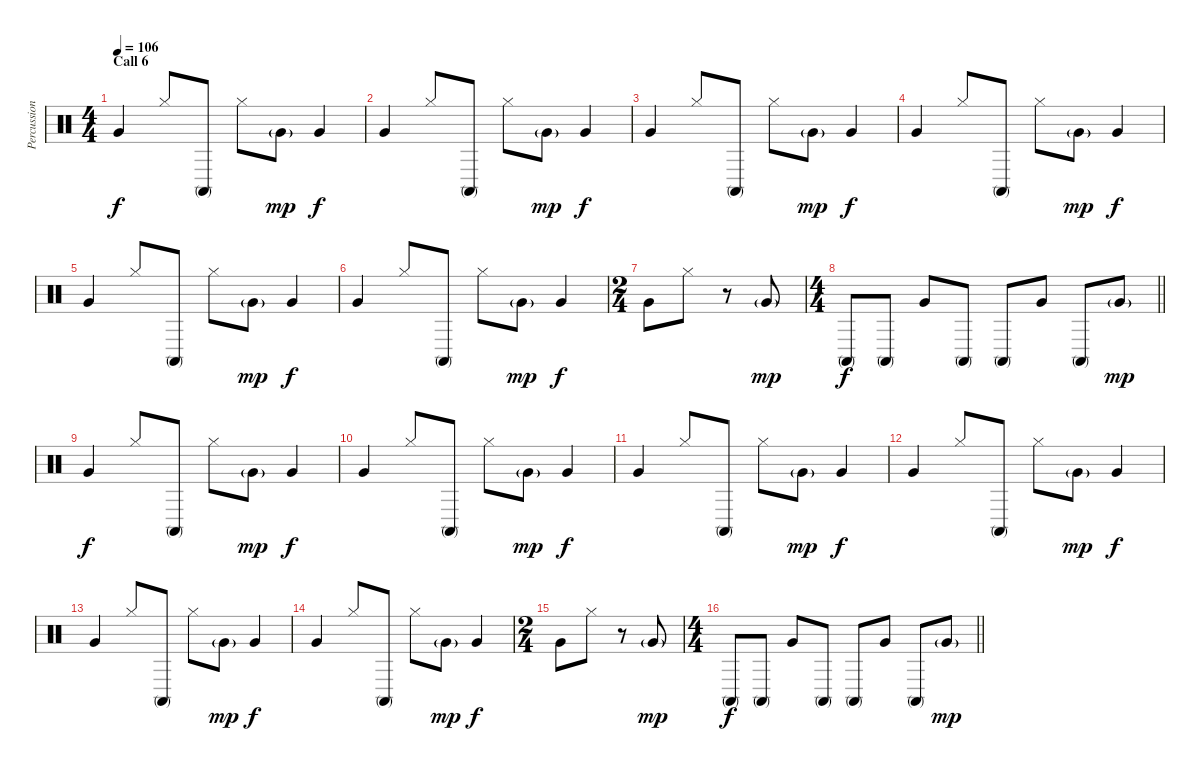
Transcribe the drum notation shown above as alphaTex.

\track ("Percussion" "Percussion") {instrument percussion}
\staff {score}
\articulation defaults
\ts (4 4)
\section ("" "Call 6")
\tempo 106
\clef neutral
\ks c "Very Low Tom (hit)".4{dy f} "Hi-Hat (closed)".8 "Conga high (mute)".8 "Hi-Hat (closed)".8 "Very Low Tom (hit)"{g}.8{dy mp} "Very Low Tom (hit)".4{dy f}
|
"Very Low Tom (hit)".4 "Hi-Hat (closed)".8 "Conga high (mute)".8 "Hi-Hat (closed)".8 "Very Low Tom (hit)"{g}.8{dy mp} "Very Low Tom (hit)".4{dy f} |
"Very Low Tom (hit)".4 "Hi-Hat (closed)".8 "Conga high (mute)".8 "Hi-Hat (closed)".8 "Very Low Tom (hit)"{g}.8{dy mp} "Very Low Tom (hit)".4{dy f} |
"Very Low Tom (hit)".4 "Hi-Hat (closed)".8 "Conga high (mute)".8 "Hi-Hat (closed)".8 "Very Low Tom (hit)"{g}.8{dy mp} "Very Low Tom (hit)".4{dy f} |
"Very Low Tom (hit)".4 "Hi-Hat (closed)".8 "Conga high (mute)".8 "Hi-Hat (closed)".8 "Very Low Tom (hit)"{g}.8{dy mp} "Very Low Tom (hit)".4{dy f} |
"Very Low Tom (hit)".4 "Hi-Hat (closed)".8 "Conga high (mute)".8 "Hi-Hat (closed)".8 "Very Low Tom (hit)"{g}.8{dy mp} "Very Low Tom (hit)".4{dy f} |
\ts (2 4)
"Very Low Tom (hit)".8 "Hi-Hat (closed)".8 r.8 "Very Low Tom (hit)"{g}.8{dy mp} |
\ts (4 4)
\barLineRight lightlight "Conga high (mute)".8{dy f} "Conga high (mute)".8 "Very Low Tom (hit)".8 "Conga high (mute)".8 "Conga high (mute)".8 "Very Low Tom (hit)".8 "Conga high (mute)".8 "Very Low Tom (hit)"{g}.8{dy mp}
|
"Very Low Tom (hit)".4{dy f} "Hi-Hat (closed)".8 "Conga high (mute)".8 "Hi-Hat (closed)".8 "Very Low Tom (hit)"{g}.8{dy mp} "Very Low Tom (hit)".4{dy f} |
"Very Low Tom (hit)".4 "Hi-Hat (closed)".8 "Conga high (mute)".8 "Hi-Hat (closed)".8 "Very Low Tom (hit)"{g}.8{dy mp} "Very Low Tom (hit)".4{dy f} |
"Very Low Tom (hit)".4 "Hi-Hat (closed)".8 "Conga high (mute)".8 "Hi-Hat (closed)".8 "Very Low Tom (hit)"{g}.8{dy mp} "Very Low Tom (hit)".4{dy f} |
"Very Low Tom (hit)".4 "Hi-Hat (closed)".8 "Conga high (mute)".8 "Hi-Hat (closed)".8 "Very Low Tom (hit)"{g}.8{dy mp} "Very Low Tom (hit)".4{dy f} |
"Very Low Tom (hit)".4 "Hi-Hat (closed)".8 "Conga high (mute)".8 "Hi-Hat (closed)".8 "Very Low Tom (hit)"{g}.8{dy mp} "Very Low Tom (hit)".4{dy f} |
"Very Low Tom (hit)".4 "Hi-Hat (closed)".8 "Conga high (mute)".8 "Hi-Hat (closed)".8 "Very Low Tom (hit)"{g}.8{dy mp} "Very Low Tom (hit)".4{dy f} |
\ts (2 4)
"Very Low Tom (hit)".8 "Hi-Hat (closed)".8 r.8 "Very Low Tom (hit)"{g}.8{dy mp} |
\ts (4 4)
\barLineRight lightlight "Conga high (mute)".8{dy f} "Conga high (mute)".8 "Very Low Tom (hit)".8 "Conga high (mute)".8 "Conga high (mute)".8 "Very Low Tom (hit)".8 "Conga high (mute)".8 "Very Low Tom (hit)"{g}.8{dy mp}
